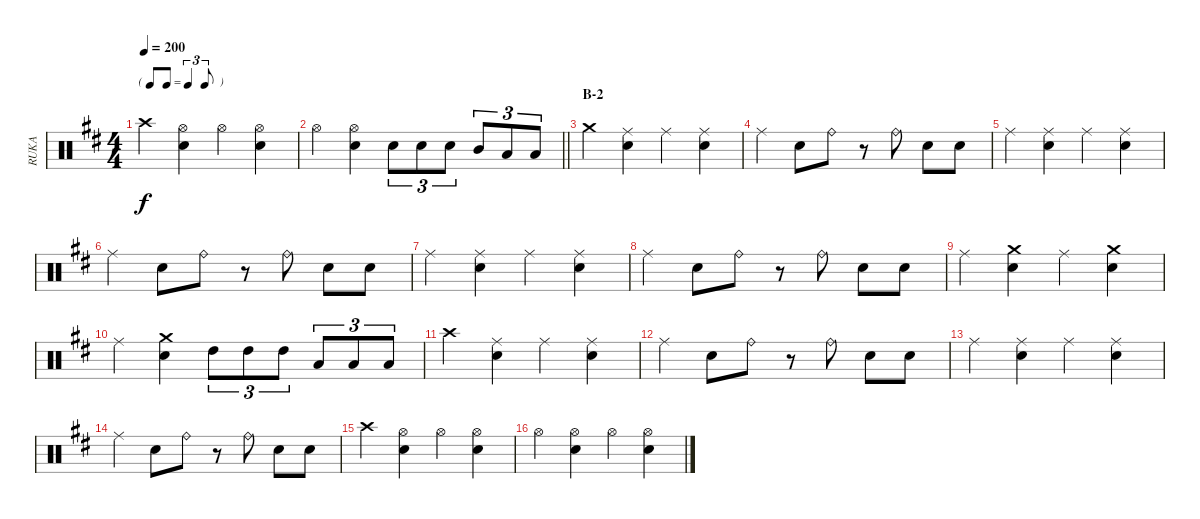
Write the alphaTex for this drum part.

\track ("RUKA" "RUKA") {instrument percussion}
\staff {score}
\articulation defaults
\ts (4 4)
\tf triplet8th
\tempo 200
\clef neutral
\ks d "Crash high (hit)".4{dy f}
("Hi-Hat (open)" "Snare (hit) 2").4 "Hi-Hat (open)".4 ("Hi-Hat (open)" "Snare (hit) 2").4 |
\barLineRight lightlight "Hi-Hat (open)".4
("Hi-Hat (open)" "Snare (hit) 2").4 "Snare (hit) 2".8{tu (3 2)} "Snare (hit) 2".8{tu (3 2)} "Snare (hit) 2".8{tu (3 2)} "Mid Tom (hit)".8{tu (3 2)} "Low Tom (hit)".8{tu (3 2)} "Low Tom (hit)".8{tu (3 2)} |
\section ("" "B-2")
"Crash medium (hit)".4 ("Ride (middle)" "Snare (hit) 2").4 "Ride (middle)".4 ("Ride (middle)" "Snare (hit) 2").4 |
"Ride (middle)".4 "Snare (hit) 2".8 "Ride (bell)".8 r.8 "Ride (bell)".8 "Snare (hit) 2".8 "Snare (hit) 2".8 |
"Ride (middle)".4 ("Ride (middle)" "Snare (hit) 2").4 "Ride (middle)".4 ("Ride (middle)" "Snare (hit) 2").4 |
"Ride (middle)".4 "Snare (hit) 2".8 "Ride (bell)".8 r.8 "Ride (bell)".8 "Snare (hit) 2".8 "Snare (hit) 2".8 |
"Ride (middle)".4 ("Ride (middle)" "Snare (hit) 2").4 "Ride (middle)".4 ("Ride (middle)" "Snare (hit) 2").4 |
"Ride (middle)".4 "Snare (hit) 2".8 "Ride (bell)".8 r.8 "Ride (bell)".8 "Snare (hit) 2".8 "Snare (hit) 2".8 |
"Ride (middle)".4 ("Crash medium (hit)" "Snare (hit) 2").4 "Ride (middle)".4 ("Crash medium (hit)" "Snare (hit) 2").4 |
"Ride (middle)".4 ("Crash medium (hit)" "Snare (hit) 2").4 "High Tom (hit)".8{tu (3 2)} "High Tom (hit)".8{tu (3 2)} "High Tom (hit)".8{tu (3 2)} "Low Tom (hit)".8{tu (3 2)} "Low Tom (hit)".8{tu (3 2)} "Low Tom (hit)".8{tu (3 2)} |
"Crash high (hit)".4 ("Ride (middle)" "Snare (hit) 2").4 "Ride (middle)".4 ("Ride (middle)" "Snare (hit) 2").4 |
"Ride (middle)".4 "Snare (hit) 2".8 "Ride (bell)".8 r.8 "Ride (bell)".8 "Snare (hit) 2".8 "Snare (hit) 2".8 |
"Ride (middle)".4 ("Ride (middle)" "Snare (hit) 2").4 "Ride (middle)".4 ("Ride (middle)" "Snare (hit) 2").4 |
"Ride (middle)".4 "Snare (hit) 2".8 "Ride (bell)".8 r.8 "Ride (bell)".8 "Snare (hit) 2".8 "Snare (hit) 2".8 |
"Crash high (hit)".4 ("Hi-Hat (open)" "Snare (hit) 2").4 "Hi-Hat (open)".4 ("Hi-Hat (open)" "Snare (hit) 2").4 |
"Hi-Hat (open)".4 ("Hi-Hat (open)" "Snare (hit) 2").4 "Hi-Hat (open)".4 ("Hi-Hat (open)" "Snare (hit) 2").4
